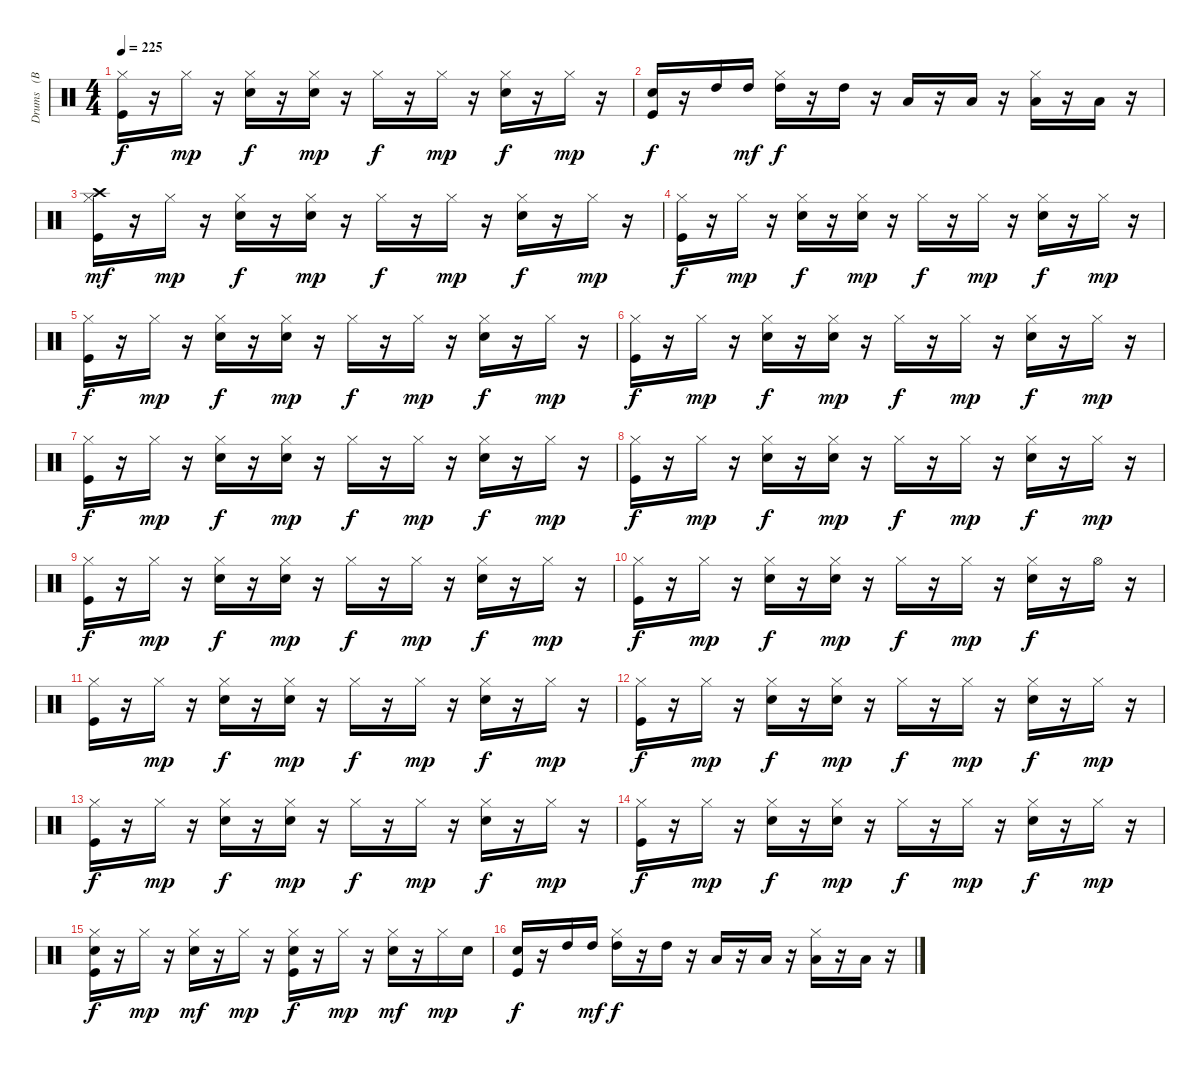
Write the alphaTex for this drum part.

\track ("Drums   (BB)" "Drums   (B") {instrument percussion}
\staff {score}
\articulation defaults
\ts (4 4)
\tempo 225
\clef neutral
\ks c
("Kick (hit)" "Hi-Hat (closed)").16{dy f} r.16 "Hi-Hat (closed)".16{dy mp} r.16 ("Snare (hit) 2" "Hi-Hat (closed)").16{dy f} r.16 ("Snare (hit) 2" "Hi-Hat (closed)").16{dy mp} r.16 "Hi-Hat (closed)".16{dy f} r.16 "Hi-Hat (closed)".16{dy mp} r.16 ("Snare (hit) 2" "Hi-Hat (closed)").16{dy f} r.16 "Hi-Hat (closed)".16{dy mp} r.16 |
("Kick (hit)" "Snare (hit) 2").16{dy f} r.16 "High Tom (hit)".16 "High Tom (hit)".16{dy mf} ("Hi-Hat (closed)" "High Tom (hit)").16{dy f} r.16 "High Tom (hit)".16 r.16 "Low Tom (hit)".16 r.16 "Low Tom (hit)".16 r.16 ("Hi-Hat (closed)" "Low Floor Tom (hit)").16 r.16 "Low Floor Tom (hit)".16 r.16 |
("Kick (hit)" "Hi-Hat (closed)" "Crash high (hit)").16{dy mf} r.16 "Hi-Hat (closed)".16{dy mp} r.16 ("Snare (hit) 2" "Hi-Hat (closed)").16{dy f} r.16 ("Snare (hit) 2" "Hi-Hat (closed)").16{dy mp} r.16 "Hi-Hat (closed)".16{dy f} r.16 "Hi-Hat (closed)".16{dy mp} r.16 ("Snare (hit) 2" "Hi-Hat (closed)").16{dy f} r.16 "Hi-Hat (closed)".16{dy mp} r.16 |
("Kick (hit)" "Hi-Hat (closed)").16{dy f} r.16 "Hi-Hat (closed)".16{dy mp} r.16 ("Snare (hit) 2" "Hi-Hat (closed)").16{dy f} r.16 ("Snare (hit) 2" "Hi-Hat (closed)").16{dy mp} r.16 "Hi-Hat (closed)".16{dy f} r.16 "Hi-Hat (closed)".16{dy mp} r.16 ("Snare (hit) 2" "Hi-Hat (closed)").16{dy f} r.16 "Hi-Hat (closed)".16{dy mp} r.16 |
("Kick (hit)" "Hi-Hat (closed)").16{dy f} r.16 "Hi-Hat (closed)".16{dy mp} r.16 ("Snare (hit) 2" "Hi-Hat (closed)").16{dy f} r.16 ("Snare (hit) 2" "Hi-Hat (closed)").16{dy mp} r.16 "Hi-Hat (closed)".16{dy f} r.16 "Hi-Hat (closed)".16{dy mp} r.16 ("Snare (hit) 2" "Hi-Hat (closed)").16{dy f} r.16 "Hi-Hat (closed)".16{dy mp} r.16 |
("Kick (hit)" "Hi-Hat (closed)").16{dy f} r.16 "Hi-Hat (closed)".16{dy mp} r.16 ("Snare (hit) 2" "Hi-Hat (closed)").16{dy f} r.16 ("Snare (hit) 2" "Hi-Hat (closed)").16{dy mp} r.16 "Hi-Hat (closed)".16{dy f} r.16 "Hi-Hat (closed)".16{dy mp} r.16 ("Snare (hit) 2" "Hi-Hat (closed)").16{dy f} r.16 "Hi-Hat (closed)".16{dy mp} r.16 |
("Kick (hit)" "Hi-Hat (closed)").16{dy f} r.16 "Hi-Hat (closed)".16{dy mp} r.16 ("Snare (hit) 2" "Hi-Hat (closed)").16{dy f} r.16 ("Snare (hit) 2" "Hi-Hat (closed)").16{dy mp} r.16 "Hi-Hat (closed)".16{dy f} r.16 "Hi-Hat (closed)".16{dy mp} r.16 ("Snare (hit) 2" "Hi-Hat (closed)").16{dy f} r.16 "Hi-Hat (closed)".16{dy mp} r.16 |
("Kick (hit)" "Hi-Hat (closed)").16{dy f} r.16 "Hi-Hat (closed)".16{dy mp} r.16 ("Snare (hit) 2" "Hi-Hat (closed)").16{dy f} r.16 ("Snare (hit) 2" "Hi-Hat (closed)").16{dy mp} r.16 "Hi-Hat (closed)".16{dy f} r.16 "Hi-Hat (closed)".16{dy mp} r.16 ("Snare (hit) 2" "Hi-Hat (closed)").16{dy f} r.16 "Hi-Hat (closed)".16{dy mp} r.16 |
("Kick (hit)" "Hi-Hat (closed)").16{dy f} r.16 "Hi-Hat (closed)".16{dy mp} r.16 ("Snare (hit) 2" "Hi-Hat (closed)").16{dy f} r.16 ("Snare (hit) 2" "Hi-Hat (closed)").16{dy mp} r.16 "Hi-Hat (closed)".16{dy f} r.16 "Hi-Hat (closed)".16{dy mp} r.16 ("Snare (hit) 2" "Hi-Hat (closed)").16{dy f} r.16 "Hi-Hat (closed)".16{dy mp} r.16 |
("Kick (hit)" "Hi-Hat (closed)").16{dy f} r.16 "Hi-Hat (closed)".16{dy mp} r.16 ("Snare (hit) 2" "Hi-Hat (closed)").16{dy f} r.16 ("Snare (hit) 2" "Hi-Hat (closed)").16{dy mp} r.16 "Hi-Hat (closed)".16{dy f} r.16 "Hi-Hat (closed)".16{dy mp} r.16 ("Snare (hit) 2" "Hi-Hat (closed)").16{dy f} r.16 "Hi-Hat (open)".16 r.16 |
("Kick (hit)" "Hi-Hat (closed)").16 r.16 "Hi-Hat (closed)".16{dy mp} r.16 ("Snare (hit) 2" "Hi-Hat (closed)").16{dy f} r.16 ("Snare (hit) 2" "Hi-Hat (closed)").16{dy mp} r.16 "Hi-Hat (closed)".16{dy f} r.16 "Hi-Hat (closed)".16{dy mp} r.16 ("Snare (hit) 2" "Hi-Hat (closed)").16{dy f} r.16 "Hi-Hat (closed)".16{dy mp} r.16 |
("Kick (hit)" "Hi-Hat (closed)").16{dy f} r.16 "Hi-Hat (closed)".16{dy mp} r.16 ("Snare (hit) 2" "Hi-Hat (closed)").16{dy f} r.16 ("Snare (hit) 2" "Hi-Hat (closed)").16{dy mp} r.16 "Hi-Hat (closed)".16{dy f} r.16 "Hi-Hat (closed)".16{dy mp} r.16 ("Snare (hit) 2" "Hi-Hat (closed)").16{dy f} r.16 "Hi-Hat (closed)".16{dy mp} r.16 |
("Kick (hit)" "Hi-Hat (closed)").16{dy f} r.16 "Hi-Hat (closed)".16{dy mp} r.16 ("Snare (hit) 2" "Hi-Hat (closed)").16{dy f} r.16 ("Snare (hit) 2" "Hi-Hat (closed)").16{dy mp} r.16 "Hi-Hat (closed)".16{dy f} r.16 "Hi-Hat (closed)".16{dy mp} r.16 ("Snare (hit) 2" "Hi-Hat (closed)").16{dy f} r.16 "Hi-Hat (closed)".16{dy mp} r.16 |
("Kick (hit)" "Hi-Hat (closed)").16{dy f} r.16 "Hi-Hat (closed)".16{dy mp} r.16 ("Snare (hit) 2" "Hi-Hat (closed)").16{dy f} r.16 ("Snare (hit) 2" "Hi-Hat (closed)").16{dy mp} r.16 "Hi-Hat (closed)".16{dy f} r.16 "Hi-Hat (closed)".16{dy mp} r.16 ("Snare (hit) 2" "Hi-Hat (closed)").16{dy f} r.16 "Hi-Hat (closed)".16{dy mp} r.16 |
("Kick (hit)" "Snare (hit) 2" "Hi-Hat (closed)").16{dy f} r.16 "Hi-Hat (closed)".16{dy mp} r.16 ("Snare (hit) 2" "Hi-Hat (closed)").16{dy mf} r.16 "Hi-Hat (closed)".16{dy mp} r.16 ("Kick (hit)" "Snare (hit) 2" "Hi-Hat (closed)").16{dy f} r.16 "Hi-Hat (closed)".16{dy mp} r.16 ("Snare (hit) 2" "Hi-Hat (closed)").16{dy mf} r.16 "Hi-Hat (closed)".16{dy mp} "Snare (hit) 2".16 |
("Kick (hit)" "Snare (hit) 2").16{dy f} r.16 "High Tom (hit)".16 "High Tom (hit)".16{dy mf} ("Hi-Hat (closed)" "High Tom (hit)").16{dy f} r.16 "High Tom (hit)".16 r.16 "Low Tom (hit)".16 r.16 "Low Tom (hit)".16 r.16 ("Hi-Hat (closed)" "Low Floor Tom (hit)").16 r.16 "Low Floor Tom (hit)".16 r.16
